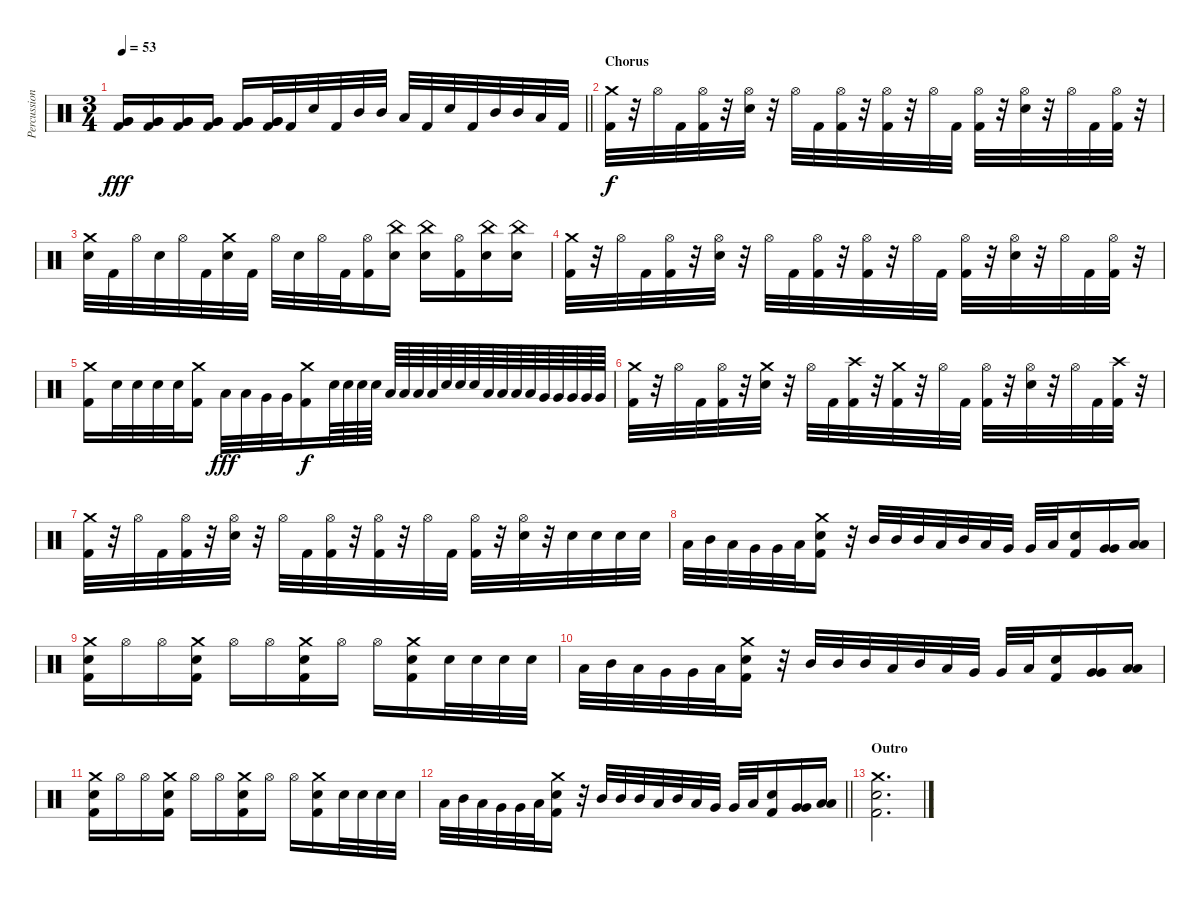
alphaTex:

\track ("Percussion" "Percussion") {instrument percussion}
\staff {score}
\articulation defaults
\ts (3 4)
\tempo 53
\clef neutral
\barLineRight lightlight
\ks c
("Very Low Tom (hit)" "Very Low Tom (hit)" "Kick (hit) 2").16{dy fff} ("Very Low Tom (hit)" "Very Low Tom (hit)" "Kick (hit) 2").16 ("Very Low Tom (hit)" "Very Low Tom (hit)" "Kick (hit) 2").16 ("Very Low Tom (hit)" "Very Low Tom (hit)" "Kick (hit) 2").16 ("Very Low Tom (hit)" "Very Low Tom (hit)" "Kick (hit) 2").16 ("Very Low Tom (hit)" "Very Low Tom (hit)" "Kick (hit) 2").32 "Kick (hit) 2".32 "Snare (hit) 2".32 "Kick (hit) 2".32 "Mid Tom (hit)".32 "Mid Tom (hit)".32 "Low Tom (hit)".32 "Kick (hit) 2".32 "Snare (hit) 2".32 "Kick (hit) 2".32 "Mid Tom (hit)".32 "Mid Tom (hit)".32 "Low Tom (hit)".32 "Kick (hit) 2".32 |
\section ("" "Chorus")
("Crash medium (hit)" "Kick (hit) 2").32{dy f} r.32 "Hi-Hat (open)".32 "Kick (hit) 2".32 ("Hi-Hat (open)" "Kick (hit) 2").32 r.32 ("Hi-Hat (open)" "Snare (hit) 2").32 r.32 "Hi-Hat (open)".32 "Kick (hit) 2".32 ("Hi-Hat (open)" "Kick (hit) 2").32 r.32 ("Hi-Hat (open)" "Kick (hit) 2").32 r.32 "Hi-Hat (open)".32 "Kick (hit) 2".32 ("Hi-Hat (open)" "Kick (hit) 2").32 r.32 ("Hi-Hat (open)" "Snare (hit) 2").32 r.32 "Hi-Hat (open)".32 "Kick (hit) 2".32 ("Hi-Hat (open)" "Kick (hit) 2").32 r.32 |
("Crash medium (hit)" "Snare (hit) 2").32 "Kick (hit) 2".32 "Hi-Hat (open)".32 "Snare (hit) 2".32 "Hi-Hat (open)".32 "Kick (hit) 2".32 ("Crash medium (hit)" "Snare (hit) 2").32 "Kick (hit) 2".32 "Hi-Hat (open)".32 "Snare (hit) 2".32 "Hi-Hat (open)".32 "Kick (hit) 2".32 ("Hi-Hat (open)" "Kick (hit) 2").16 ("China (hit)" "Snare (hit) 2").16 ("China (hit)" "Snare (hit) 2").16 ("Hi-Hat (open)" "Kick (hit) 2").16 ("China (hit)" "Snare (hit) 2").16 ("China (hit)" "Snare (hit) 2").16 |
("Crash medium (hit)" "Kick (hit) 2").32 r.32 "Hi-Hat (open)".32 "Kick (hit) 2".32 ("Hi-Hat (open)" "Kick (hit) 2").32 r.32 ("Hi-Hat (open)" "Snare (hit) 2").32 r.32 "Hi-Hat (open)".32 "Kick (hit) 2".32 ("Hi-Hat (open)" "Kick (hit) 2").32 r.32 ("Hi-Hat (open)" "Kick (hit) 2").32 r.32 "Hi-Hat (open)".32 "Kick (hit) 2".32 ("Hi-Hat (open)" "Kick (hit) 2").32 r.32 ("Hi-Hat (open)" "Snare (hit) 2").32 r.32 "Hi-Hat (open)".32 "Kick (hit) 2".32 ("Hi-Hat (open)" "Kick (hit) 2").32 r.32 |
("Crash medium (hit)" "Kick (hit) 2").16 "Snare (hit) 2".32 "Snare (hit) 2".32 "Snare (hit) 2".32 "Snare (hit) 2".32 ("Crash medium (hit)" "Kick (hit) 2").16 "Low Tom (hit)".32{dy fff} "Low Tom (hit)".32 "Very Low Tom (hit)".32 "Very Low Tom (hit)".32 ("Crash medium (hit)" "Kick (hit) 2").16{dy f} "Snare (hit) 2".64 "Snare (hit) 2".64 "Snare (hit) 2".64 "Snare (hit) 2".64 "Low Tom (hit)".64 "Low Tom (hit)".64 "Low Tom (hit)".64 "Low Tom (hit)".64 "Snare (hit) 2".64 "Snare (hit) 2".64 "Snare (hit) 2".64 "Low Tom (hit)".64 "Low Tom (hit)".64 "Low Tom (hit)".64 "Low Tom (hit)".64 "Very Low Tom (hit)".64 "Very Low Tom (hit)".64 "Very Low Tom (hit)".64 "Very Low Tom (hit)".64 "Very Low Tom (hit)".64 |
("Crash medium (hit)" "Kick (hit) 2").32 r.32 "Hi-Hat (open)".32 "Kick (hit) 2".32 ("Hi-Hat (open)" "Kick (hit) 2").32 r.32 ("Crash medium (hit)" "Snare (hit) 2").32 r.32 "Hi-Hat (open)".32 "Kick (hit) 2".32 ("Crash high (hit)" "Kick (hit) 2").32 r.32 ("Crash medium (hit)" "Kick (hit) 2").32 r.32 "Hi-Hat (open)".32 "Kick (hit) 2".32 ("Hi-Hat (open)" "Kick (hit) 2").32 r.32 ("Hi-Hat (open)" "Snare (hit) 2").32 r.32 "Hi-Hat (open)".32 "Kick (hit) 2".32 ("Crash high (hit)" "Kick (hit) 2").32 r.32 |
("Crash medium (hit)" "Kick (hit) 2").32 r.32 "Hi-Hat (open)".32 "Kick (hit) 2".32 ("Hi-Hat (open)" "Kick (hit) 2").32 r.32 ("Hi-Hat (open)" "Snare (hit) 2").32 r.32 "Hi-Hat (open)".32 "Kick (hit) 2".32 ("Hi-Hat (open)" "Kick (hit) 2").32 r.32 ("Hi-Hat (open)" "Kick (hit) 2").32 r.32 "Hi-Hat (open)".32 "Kick (hit) 2".32 ("Hi-Hat (open)" "Kick (hit) 2").32 r.32 ("Hi-Hat (open)" "Snare (hit) 2").32 r.32 "Snare (hit) 2".32 "Snare (hit) 2".32 "Snare (hit) 2".32 "Snare (hit) 2".32 |
"Low Tom (hit)".32 "Mid Tom (hit)".32 "Low Tom (hit)".32 "Very Low Tom (hit)".32 "Very Low Tom (hit)".32 "Low Floor Tom (hit)".32 ("Crash medium (hit)" "Snare (hit) 2" "Kick (hit) 2").16 r.32 "Mid Tom (hit)".32 "Mid Tom (hit)".32 "Mid Tom (hit)".32 "Low Tom (hit)".32 "Mid Tom (hit)".32 "Low Tom (hit)".32 "Very Low Tom (hit)".32 "Very Low Tom (hit)".32 "Low Floor Tom (hit)".32 ("Snare (hit) 2" "Kick (hit) 2").16 ("Very Low Tom (hit)" "Very Low Tom (hit)").16 ("Low Tom (hit)" "Low Tom (hit)").16 |
("Crash medium (hit)" "Snare (hit) 2" "Kick (hit) 2").16 "Hi-Hat (open)".16 "Hi-Hat (open)".16 ("Crash medium (hit)" "Snare (hit) 2" "Kick (hit) 2").16 "Hi-Hat (open)".16 "Hi-Hat (open)".16 ("Crash medium (hit)" "Snare (hit) 2" "Kick (hit) 2").16 "Hi-Hat (open)".16 "Hi-Hat (open)".16 ("Crash medium (hit)" "Snare (hit) 2" "Kick (hit) 2").16 "Snare (hit) 2".32 "Snare (hit) 2".32 "Snare (hit) 2".32 "Snare (hit) 2".32 |
"Low Tom (hit)".32 "Mid Tom (hit)".32 "Low Tom (hit)".32 "Very Low Tom (hit)".32 "Very Low Tom (hit)".32 "Low Floor Tom (hit)".32 ("Crash medium (hit)" "Snare (hit) 2" "Kick (hit) 2").16 r.32 "Mid Tom (hit)".32 "Mid Tom (hit)".32 "Mid Tom (hit)".32 "Low Tom (hit)".32 "Mid Tom (hit)".32 "Low Tom (hit)".32 "Very Low Tom (hit)".32 "Very Low Tom (hit)".32 "Low Floor Tom (hit)".32 ("Snare (hit) 2" "Kick (hit) 2").16 ("Very Low Tom (hit)" "Very Low Tom (hit)").16 ("Low Tom (hit)" "Low Tom (hit)").16 |
("Crash medium (hit)" "Snare (hit) 2" "Kick (hit) 2").16 "Hi-Hat (open)".16 "Hi-Hat (open)".16 ("Crash medium (hit)" "Snare (hit) 2" "Kick (hit) 2").16 "Hi-Hat (open)".16 "Hi-Hat (open)".16 ("Crash medium (hit)" "Snare (hit) 2" "Kick (hit) 2").16 "Hi-Hat (open)".16 "Hi-Hat (open)".16 ("Crash medium (hit)" "Snare (hit) 2" "Kick (hit) 2").16 "Snare (hit) 2".32 "Snare (hit) 2".32 "Snare (hit) 2".32 "Snare (hit) 2".32 |
\barLineRight lightlight "Low Tom (hit)".32 "Mid Tom (hit)".32 "Low Tom (hit)".32 "Very Low Tom (hit)".32 "Very Low Tom (hit)".32 "Low Floor Tom (hit)".32
("Crash medium (hit)" "Snare (hit) 2" "Kick (hit) 2").16 r.32 "Mid Tom (hit)".32 "Mid Tom (hit)".32 "Mid Tom (hit)".32 "Low Tom (hit)".32 "Mid Tom (hit)".32 "Low Tom (hit)".32 "Very Low Tom (hit)".32 "Very Low Tom (hit)".32 "Low Floor Tom (hit)".32 ("Snare (hit) 2" "Kick (hit) 2").16 ("Very Low Tom (hit)" "Very Low Tom (hit)").16 ("Low Tom (hit)" "Low Tom (hit)").16 |
\section ("" "Outro")
("Crash medium (hit)" "Snare (hit) 2" "Kick (hit) 2").2{d}
